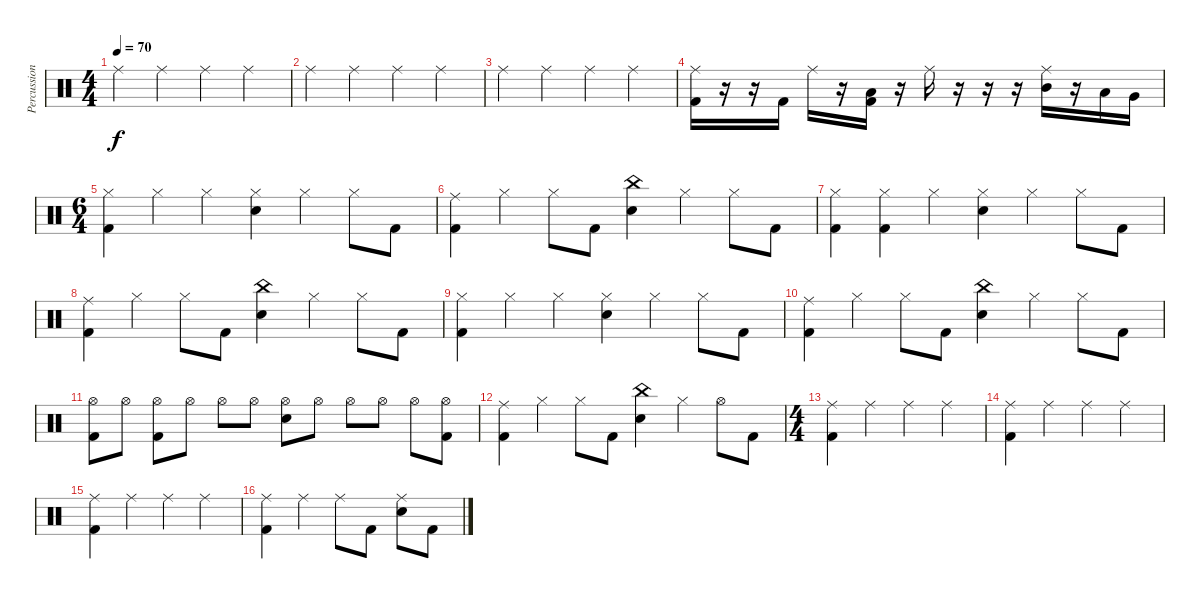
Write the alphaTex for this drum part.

\track ("Percussion" "Percussion") {instrument percussion}
\staff {score}
\articulation defaults
\ts (4 4)
\tempo 70
\clef neutral
\ks c "Ride (middle)".4{dy f} "Ride (middle)".4 "Ride (middle)".4 "Ride (middle)".4
|
"Ride (middle)".4 "Ride (middle)".4 "Ride (middle)".4 "Ride (middle)".4 |
"Ride (middle)".4 "Ride (middle)".4 "Ride (middle)".4 "Ride (middle)".4 |
("Ride (middle)" "Kick (hit) 2").16 r.16 r.16 "Kick (hit) 2".16 "Ride (middle)".16 r.16 ("Low Floor Tom (hit)" "Kick (hit) 2").16 r.16 "Ride (middle)".16 r.16 r.16 r.16 ("Ride (middle)" "Mid Tom (hit)").16 r.16 "Low Tom (hit)".16 "Very Low Tom (hit)".16 |
\ts (6 4)
("Hi-Hat (closed)" "Kick (hit) 2").4 "Hi-Hat (closed)".4 "Hi-Hat (closed)".4 ("Hi-Hat (closed)" "Electric Snare (hit)").4 "Hi-Hat (closed)".4 "Hi-Hat (closed)".8 "Kick (hit) 2".8 |
("Ride (middle)" "Kick (hit) 2").4 "Hi-Hat (closed)".4 "Hi-Hat (closed)".8 "Kick (hit) 2".8 ("China (hit)" "Electric Snare (hit)").4 "Hi-Hat (closed)".4 "Hi-Hat (closed)".8 "Kick (hit) 2".8 |
("Hi-Hat (closed)" "Kick (hit) 2").4 ("Hi-Hat (closed)" "Kick (hit) 2").4 "Hi-Hat (closed)".4 ("Hi-Hat (closed)" "Electric Snare (hit)").4 "Hi-Hat (closed)".4 "Hi-Hat (closed)".8 "Kick (hit) 2".8 |
("Ride (middle)" "Kick (hit) 2").4 "Hi-Hat (closed)".4 "Hi-Hat (closed)".8 "Kick (hit) 2".8 ("China (hit)" "Electric Snare (hit)").4 "Hi-Hat (closed)".4 "Hi-Hat (closed)".8 "Kick (hit) 2".8 |
("Hi-Hat (closed)" "Kick (hit) 2").4 "Hi-Hat (closed)".4 "Hi-Hat (closed)".4 ("Hi-Hat (closed)" "Electric Snare (hit)").4 "Hi-Hat (closed)".4 "Hi-Hat (closed)".8 "Kick (hit) 2".8 |
("Ride (middle)" "Kick (hit) 2").4 "Hi-Hat (closed)".4 "Hi-Hat (closed)".8 "Kick (hit) 2".8 ("China (hit)" "Electric Snare (hit)").4 "Hi-Hat (closed)".4 "Hi-Hat (closed)".8 "Kick (hit) 2".8 |
("Hi-Hat (open)" "Kick (hit) 2").8 "Hi-Hat (open)".8 ("Hi-Hat (open)" "Kick (hit) 2").8 "Hi-Hat (open)".8 "Hi-Hat (open)".8 "Hi-Hat (open)".8 ("Hi-Hat (open)" "Electric Snare (hit)").8 "Hi-Hat (open)".8 "Hi-Hat (open)".8 "Hi-Hat (open)".8 "Hi-Hat (open)".8 ("Hi-Hat (open)" "Kick (hit) 2").8 |
("Ride (middle)" "Kick (hit) 2").4 "Hi-Hat (closed)".4 "Hi-Hat (closed)".8 "Kick (hit) 2".8 ("China (hit)" "Electric Snare (hit)").4 "Hi-Hat (closed)".4 "Hi-Hat (open)".8 "Kick (hit) 2".8 |
\ts (4 4)
("Ride (middle)" "Kick (hit) 2").4 "Ride (middle)".4 "Ride (middle)".4 "Ride (middle)".4 |
("Ride (middle)" "Kick (hit) 2").4 "Ride (middle)".4 "Ride (middle)".4 "Ride (middle)".4 |
("Ride (middle)" "Kick (hit) 2").4 "Ride (middle)".4 "Ride (middle)".4 "Ride (middle)".4 |
("Ride (middle)" "Kick (hit) 2").4 "Ride (middle)".4 "Ride (middle)".8 "Kick (hit) 2".8 ("Ride (middle)" "Electric Snare (hit)").8 "Kick (hit) 2".8
